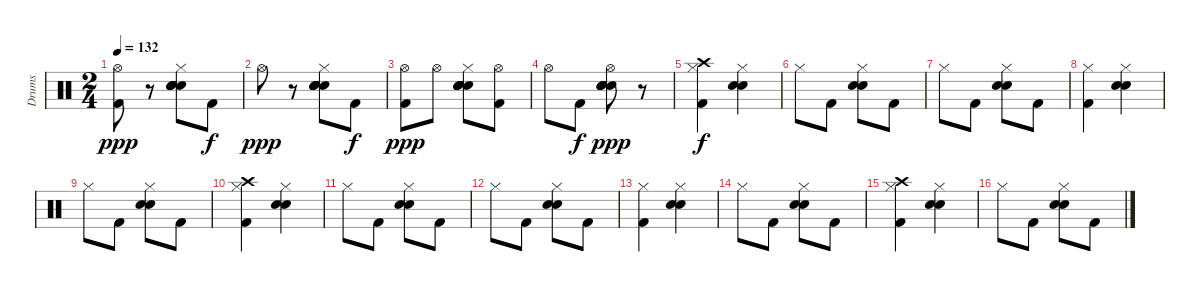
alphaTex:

\track ("Drums" "Drums") {instrument percussion}
\staff {score}
\articulation defaults
\ts (2 4)
\tempo 132
\clef neutral
\ks c
("Kick (hit) 2" "Hi-Hat (open)").8{dy ppp} r.8 ("Hand Clap (hit)" "Hand Clap (hit)" "Hand Clap (hit)" "Hand Clap (hit)" "Hand Clap (hit)" "Hi-Hat (closed)").8{bd 60} "Kick (hit) 2".8{dy f} |
"Hi-Hat (open)".8{dy ppp} r.8 ("Hand Clap (hit)" "Hand Clap (hit)" "Hand Clap (hit)" "Hand Clap (hit)" "Hand Clap (hit)" "Hi-Hat (closed)").8{bd 60} "Kick (hit) 2".8{dy f} |
("Kick (hit) 2" "Hi-Hat (open)").8{dy ppp} "Hi-Hat (open)".8 ("Hand Clap (hit)" "Hand Clap (hit)" "Hand Clap (hit)" "Hand Clap (hit)" "Hand Clap (hit)" "Hi-Hat (closed)").8{bd 60} ("Kick (hit) 2" "Hi-Hat (open)").8 |
"Hi-Hat (open)".8 "Kick (hit) 2".8{dy f} ("Hand Clap (hit)" "Electric Snare (hit)" "Electric Snare (hit)" "Electric Snare (hit)" "Hand Clap (hit)" "Hi-Hat (open)").8{bd 120 dy ppp volume 12} r.8 |
("Kick (hit) 2" "Crash high (hit)" "Hi-Hat (closed)").4{dy f} ("Electric Snare (hit)" "Electric Snare (hit)" "Hi-Hat (closed)").4 |
"Hi-Hat (closed)".8 "Kick (hit) 2".8 ("Electric Snare (hit)" "Electric Snare (hit)" "Hi-Hat (closed)").8 "Kick (hit) 2".8 |
"Hi-Hat (closed)".8 "Kick (hit) 2".8 ("Electric Snare (hit)" "Electric Snare (hit)" "Hi-Hat (closed)").8 "Kick (hit) 2".8 |
("Kick (hit) 2" "Hi-Hat (closed)").4 ("Electric Snare (hit)" "Electric Snare (hit)" "Hi-Hat (closed)").4 |
"Hi-Hat (closed)".8 "Kick (hit) 2".8 ("Electric Snare (hit)" "Electric Snare (hit)" "Hi-Hat (closed)").8 "Kick (hit) 2".8 |
("Kick (hit) 2" "Crash high (hit)" "Hi-Hat (closed)").4 ("Electric Snare (hit)" "Electric Snare (hit)" "Hi-Hat (closed)").4 |
"Hi-Hat (closed)".8 "Kick (hit) 2".8 ("Electric Snare (hit)" "Electric Snare (hit)" "Hi-Hat (closed)").8 "Kick (hit) 2".8 |
"Hi-Hat (closed)".8 "Kick (hit) 2".8 ("Electric Snare (hit)" "Electric Snare (hit)" "Hi-Hat (closed)").8 "Kick (hit) 2".8 |
("Kick (hit) 2" "Hi-Hat (closed)").4 ("Electric Snare (hit)" "Electric Snare (hit)" "Hi-Hat (closed)").4 |
"Hi-Hat (closed)".8 "Kick (hit) 2".8 ("Electric Snare (hit)" "Electric Snare (hit)" "Hi-Hat (closed)").8 "Kick (hit) 2".8 |
("Kick (hit) 2" "Crash high (hit)" "Hi-Hat (closed)").4 ("Electric Snare (hit)" "Electric Snare (hit)" "Hi-Hat (closed)").4 |
"Hi-Hat (closed)".8 "Kick (hit) 2".8 ("Electric Snare (hit)" "Electric Snare (hit)" "Hi-Hat (closed)").8 "Kick (hit) 2".8
